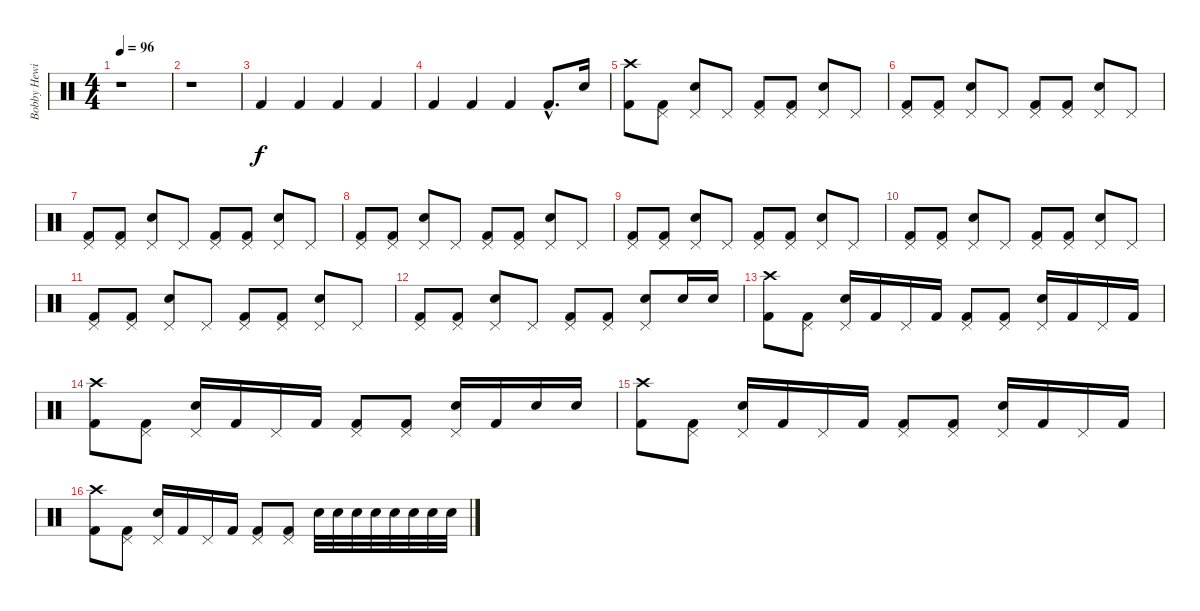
\track ("Bobby Hewitt (Elec. Drums)" "Bobby Hewi") {instrument percussion}
\staff {score}
\articulation defaults
\ts (4 4)
\tempo 96
\clef neutral
\ks c
r.1{dy f} |
r.1 |
"Kick (hit) 2".4 "Kick (hit) 2".4 "Kick (hit) 2".4 "Kick (hit) 2".4 |
"Kick (hit) 2".4 "Kick (hit) 2".4 "Kick (hit) 2".4 "Kick (hit) 2"{hac}.8{d} "Electric Snare (hit)".16 |
("Crash high (hit)" "Kick (hit) 2").8 ("Pedal Hi-Hat (hit)" "Kick (hit) 2").8 ("Pedal Hi-Hat (hit)" "Electric Snare (hit)").8 "Pedal Hi-Hat (hit)".8 ("Pedal Hi-Hat (hit)" "Kick (hit) 2").8 ("Pedal Hi-Hat (hit)" "Kick (hit) 2").8 ("Pedal Hi-Hat (hit)" "Electric Snare (hit)").8 "Pedal Hi-Hat (hit)".8 |
("Pedal Hi-Hat (hit)" "Kick (hit) 2").8 ("Pedal Hi-Hat (hit)" "Kick (hit) 2").8 ("Pedal Hi-Hat (hit)" "Electric Snare (hit)").8 "Pedal Hi-Hat (hit)".8 ("Pedal Hi-Hat (hit)" "Kick (hit) 2").8 ("Pedal Hi-Hat (hit)" "Kick (hit) 2").8 ("Pedal Hi-Hat (hit)" "Electric Snare (hit)").8 "Pedal Hi-Hat (hit)".8 |
("Pedal Hi-Hat (hit)" "Kick (hit) 2").8 ("Pedal Hi-Hat (hit)" "Kick (hit) 2").8 ("Pedal Hi-Hat (hit)" "Electric Snare (hit)").8 "Pedal Hi-Hat (hit)".8 ("Pedal Hi-Hat (hit)" "Kick (hit) 2").8 ("Pedal Hi-Hat (hit)" "Kick (hit) 2").8 ("Pedal Hi-Hat (hit)" "Electric Snare (hit)").8 "Pedal Hi-Hat (hit)".8 |
("Pedal Hi-Hat (hit)" "Kick (hit) 2").8 ("Pedal Hi-Hat (hit)" "Kick (hit) 2").8 ("Pedal Hi-Hat (hit)" "Electric Snare (hit)").8 "Pedal Hi-Hat (hit)".8 ("Pedal Hi-Hat (hit)" "Kick (hit) 2").8 ("Pedal Hi-Hat (hit)" "Kick (hit) 2").8 ("Pedal Hi-Hat (hit)" "Electric Snare (hit)").8 "Pedal Hi-Hat (hit)".8 |
("Pedal Hi-Hat (hit)" "Kick (hit) 2").8 ("Pedal Hi-Hat (hit)" "Kick (hit) 2").8 ("Pedal Hi-Hat (hit)" "Electric Snare (hit)").8 "Pedal Hi-Hat (hit)".8 ("Pedal Hi-Hat (hit)" "Kick (hit) 2").8 ("Pedal Hi-Hat (hit)" "Kick (hit) 2").8 ("Pedal Hi-Hat (hit)" "Electric Snare (hit)").8 "Pedal Hi-Hat (hit)".8 |
("Pedal Hi-Hat (hit)" "Kick (hit) 2").8 ("Pedal Hi-Hat (hit)" "Kick (hit) 2").8 ("Pedal Hi-Hat (hit)" "Electric Snare (hit)").8 "Pedal Hi-Hat (hit)".8 ("Pedal Hi-Hat (hit)" "Kick (hit) 2").8 ("Pedal Hi-Hat (hit)" "Kick (hit) 2").8 ("Pedal Hi-Hat (hit)" "Electric Snare (hit)").8 "Pedal Hi-Hat (hit)".8 |
("Pedal Hi-Hat (hit)" "Kick (hit) 2").8 ("Pedal Hi-Hat (hit)" "Kick (hit) 2").8 ("Pedal Hi-Hat (hit)" "Electric Snare (hit)").8 "Pedal Hi-Hat (hit)".8 ("Pedal Hi-Hat (hit)" "Kick (hit) 2").8 ("Pedal Hi-Hat (hit)" "Kick (hit) 2").8 ("Pedal Hi-Hat (hit)" "Electric Snare (hit)").8 "Pedal Hi-Hat (hit)".8 |
("Pedal Hi-Hat (hit)" "Kick (hit) 2").8 ("Pedal Hi-Hat (hit)" "Kick (hit) 2").8 ("Pedal Hi-Hat (hit)" "Electric Snare (hit)").8 "Pedal Hi-Hat (hit)".8 ("Pedal Hi-Hat (hit)" "Kick (hit) 2").8 ("Pedal Hi-Hat (hit)" "Kick (hit) 2").8 ("Pedal Hi-Hat (hit)" "Electric Snare (hit)").8 "Electric Snare (hit)".16 "Electric Snare (hit)".16 |
("Crash high (hit)" "Kick (hit) 2").8 ("Pedal Hi-Hat (hit)" "Kick (hit) 2").8 ("Pedal Hi-Hat (hit)" "Electric Snare (hit)").16 "Kick (hit) 2".16 "Pedal Hi-Hat (hit)".16 "Kick (hit) 2".16 ("Pedal Hi-Hat (hit)" "Kick (hit) 2").8 ("Pedal Hi-Hat (hit)" "Kick (hit) 2").8 ("Pedal Hi-Hat (hit)" "Electric Snare (hit)").16 "Kick (hit) 2".16 "Pedal Hi-Hat (hit)".16 "Kick (hit) 2".16 |
("Crash high (hit)" "Kick (hit) 2").8 ("Pedal Hi-Hat (hit)" "Kick (hit) 2").8 ("Pedal Hi-Hat (hit)" "Electric Snare (hit)").16 "Kick (hit) 2".16 "Pedal Hi-Hat (hit)".16 "Kick (hit) 2".16 ("Pedal Hi-Hat (hit)" "Kick (hit) 2").8 ("Pedal Hi-Hat (hit)" "Kick (hit) 2").8 ("Pedal Hi-Hat (hit)" "Electric Snare (hit)").16 "Kick (hit) 2".16 "Electric Snare (hit)".16 "Electric Snare (hit)".16 |
("Crash high (hit)" "Kick (hit) 2").8 ("Pedal Hi-Hat (hit)" "Kick (hit) 2").8 ("Pedal Hi-Hat (hit)" "Electric Snare (hit)").16 "Kick (hit) 2".16 "Pedal Hi-Hat (hit)".16 "Kick (hit) 2".16 ("Pedal Hi-Hat (hit)" "Kick (hit) 2").8 ("Pedal Hi-Hat (hit)" "Kick (hit) 2").8 ("Pedal Hi-Hat (hit)" "Electric Snare (hit)").16 "Kick (hit) 2".16 "Pedal Hi-Hat (hit)".16 "Kick (hit) 2".16 |
("Crash high (hit)" "Kick (hit) 2").8 ("Pedal Hi-Hat (hit)" "Kick (hit) 2").8 ("Pedal Hi-Hat (hit)" "Electric Snare (hit)").16 "Kick (hit) 2".16 "Pedal Hi-Hat (hit)".16 "Kick (hit) 2".16 ("Pedal Hi-Hat (hit)" "Kick (hit) 2").8 ("Pedal Hi-Hat (hit)" "Kick (hit) 2").8 "Electric Snare (hit)".32 "Electric Snare (hit)".32 "Electric Snare (hit)".32 "Electric Snare (hit)".32 "Electric Snare (hit)".32 "Electric Snare (hit)".32 "Electric Snare (hit)".32 "Electric Snare (hit)".32
